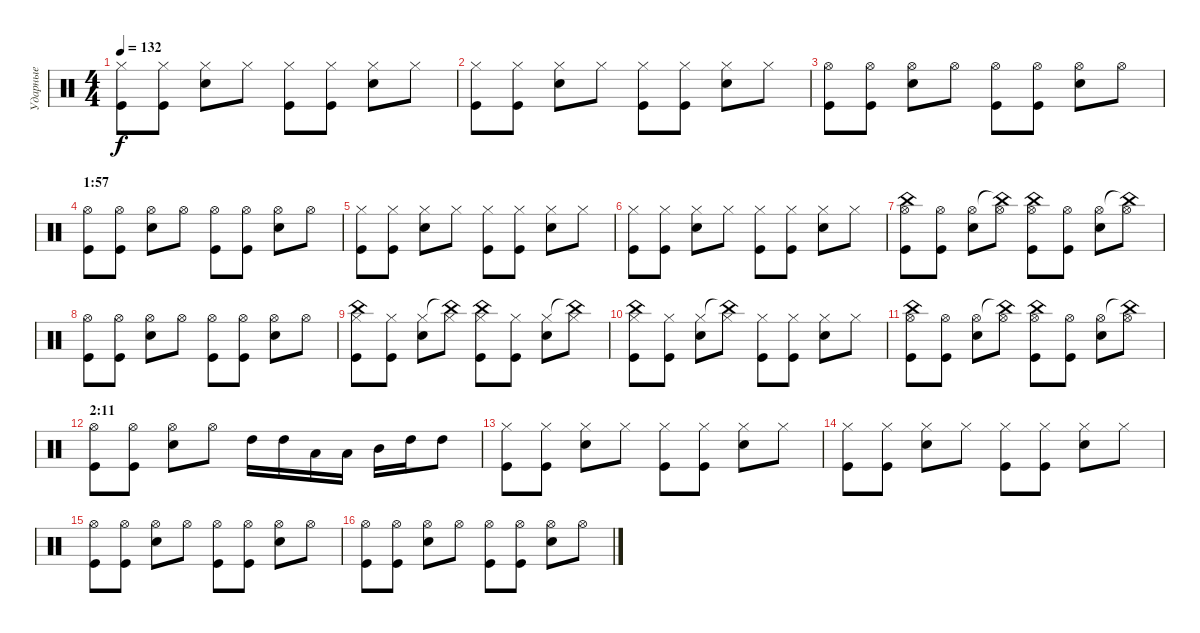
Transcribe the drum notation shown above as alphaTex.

\track ("Ударные" "Ударные") {instrument percussion}
\staff {score}
\articulation defaults
\ts (4 4)
\tempo 132
\clef neutral
\ks c
("Hi-Hat (closed)" "Kick (hit)").8{dy f} ("Hi-Hat (closed)" "Kick (hit)").8 ("Hi-Hat (closed)" "Snare (hit) 2").8 "Hi-Hat (closed)".8 ("Hi-Hat (closed)" "Kick (hit)").8 ("Hi-Hat (closed)" "Kick (hit)").8 ("Hi-Hat (closed)" "Snare (hit) 2").8 "Hi-Hat (closed)".8 |
("Hi-Hat (closed)" "Kick (hit)").8 ("Hi-Hat (closed)" "Kick (hit)").8 ("Hi-Hat (closed)" "Snare (hit) 2").8 "Hi-Hat (closed)".8 ("Hi-Hat (closed)" "Kick (hit)").8 ("Hi-Hat (closed)" "Kick (hit)").8 ("Hi-Hat (closed)" "Snare (hit) 2").8 "Hi-Hat (closed)".8 |
("Hi-Hat (open)" "Kick (hit)").8 ("Hi-Hat (open)" "Kick (hit)").8 ("Hi-Hat (open)" "Snare (hit) 2").8 "Hi-Hat (open)".8 ("Hi-Hat (open)" "Kick (hit)").8 ("Hi-Hat (open)" "Kick (hit)").8 ("Hi-Hat (open)" "Snare (hit) 2").8 "Hi-Hat (open)".8 |
\section ("" "1:57")
("Hi-Hat (open)" "Kick (hit)").8 ("Hi-Hat (open)" "Kick (hit)").8 ("Hi-Hat (open)" "Snare (hit) 2").8 "Hi-Hat (open)".8 ("Hi-Hat (open)" "Kick (hit)").8 ("Hi-Hat (open)" "Kick (hit)").8 ("Hi-Hat (open)" "Snare (hit) 2").8 "Hi-Hat (open)".8 |
("Hi-Hat (closed)" "Kick (hit)").8 ("Hi-Hat (closed)" "Kick (hit)").8 ("Hi-Hat (closed)" "Snare (hit) 2").8 "Hi-Hat (closed)".8 ("Hi-Hat (closed)" "Kick (hit)").8 ("Hi-Hat (closed)" "Kick (hit)").8 ("Hi-Hat (closed)" "Snare (hit) 2").8 "Hi-Hat (closed)".8 |
("Hi-Hat (closed)" "Kick (hit)").8 ("Hi-Hat (closed)" "Kick (hit)").8 ("Hi-Hat (closed)" "Snare (hit) 2").8 "Hi-Hat (closed)".8 ("Hi-Hat (closed)" "Kick (hit)").8 ("Hi-Hat (closed)" "Kick (hit)").8 ("Hi-Hat (closed)" "Snare (hit) 2").8 "Hi-Hat (closed)".8 |
("China (hit)" "Hi-Hat (open)" "Kick (hit)").8 ("Hi-Hat (open)" "Kick (hit)").8 ("Hi-Hat (open)" "Snare (hit) 2").8 ("China (hit)"{t} "Hi-Hat (open)").8 ("China (hit)" "Hi-Hat (open)" "Kick (hit)").8 ("Hi-Hat (open)" "Kick (hit)").8 ("Hi-Hat (open)" "Snare (hit) 2").8 ("China (hit)"{t} "Hi-Hat (open)").8 |
("Hi-Hat (open)" "Kick (hit)").8 ("Hi-Hat (open)" "Kick (hit)").8 ("Hi-Hat (open)" "Snare (hit) 2").8 "Hi-Hat (open)".8 ("Hi-Hat (open)" "Kick (hit)").8 ("Hi-Hat (open)" "Kick (hit)").8 ("Hi-Hat (open)" "Snare (hit) 2").8 "Hi-Hat (open)".8 |
("China (hit)" "Hi-Hat (closed)" "Kick (hit)").8 ("Hi-Hat (closed)" "Kick (hit)").8 ("Hi-Hat (closed)" "Snare (hit) 2").8 ("China (hit)"{t} "Hi-Hat (closed)").8 ("China (hit)" "Hi-Hat (closed)" "Kick (hit)").8 ("Hi-Hat (closed)" "Kick (hit)").8 ("Hi-Hat (closed)" "Snare (hit) 2").8 ("China (hit)"{t} "Hi-Hat (closed)").8 |
("China (hit)" "Hi-Hat (closed)" "Kick (hit)").8 ("Hi-Hat (closed)" "Kick (hit)").8 ("Hi-Hat (closed)" "Snare (hit) 2").8 ("China (hit)"{t} "Hi-Hat (closed)").8 ("Hi-Hat (closed)" "Kick (hit)").8 ("Hi-Hat (closed)" "Kick (hit)").8 ("Hi-Hat (closed)" "Snare (hit) 2").8 "Hi-Hat (closed)".8 |
("China (hit)" "Hi-Hat (open)" "Kick (hit)").8 ("Hi-Hat (open)" "Kick (hit)").8 ("Hi-Hat (open)" "Snare (hit) 2").8 ("China (hit)"{t} "Hi-Hat (open)").8 ("China (hit)" "Hi-Hat (open)" "Kick (hit)").8 ("Hi-Hat (open)" "Kick (hit)").8 ("Hi-Hat (open)" "Snare (hit) 2").8 ("China (hit)"{t} "Hi-Hat (open)").8 |
\section ("" "2:11")
("Hi-Hat (open)" "Kick (hit)").8 ("Hi-Hat (open)" "Kick (hit)").8 ("Hi-Hat (open)" "Snare (hit) 2").8 "Hi-Hat (open)".8 "High Tom (hit)".16 "High Tom (hit)".16 "Low Tom (hit)".16 "Low Tom (hit)".16 "Mid Tom (hit)".16 "High Tom (hit)".16 "High Tom (hit)".8 |
("Hi-Hat (closed)" "Kick (hit)").8 ("Hi-Hat (closed)" "Kick (hit)").8 ("Hi-Hat (closed)" "Snare (hit) 2").8 "Hi-Hat (closed)".8 ("Hi-Hat (closed)" "Kick (hit)").8 ("Hi-Hat (closed)" "Kick (hit)").8 ("Hi-Hat (closed)" "Snare (hit) 2").8 "Hi-Hat (closed)".8 |
("Hi-Hat (closed)" "Kick (hit)").8 ("Hi-Hat (closed)" "Kick (hit)").8 ("Hi-Hat (closed)" "Snare (hit) 2").8 "Hi-Hat (closed)".8 ("Hi-Hat (closed)" "Kick (hit)").8 ("Hi-Hat (closed)" "Kick (hit)").8 ("Hi-Hat (closed)" "Snare (hit) 2").8 "Hi-Hat (closed)".8 |
("Hi-Hat (open)" "Kick (hit)").8 ("Hi-Hat (open)" "Kick (hit)").8 ("Hi-Hat (open)" "Snare (hit) 2").8 "Hi-Hat (open)".8 ("Hi-Hat (open)" "Kick (hit)").8 ("Hi-Hat (open)" "Kick (hit)").8 ("Hi-Hat (open)" "Snare (hit) 2").8 "Hi-Hat (open)".8 |
("Hi-Hat (open)" "Kick (hit)").8 ("Hi-Hat (open)" "Kick (hit)").8 ("Hi-Hat (open)" "Snare (hit) 2").8 "Hi-Hat (open)".8 ("Hi-Hat (open)" "Kick (hit)").8 ("Hi-Hat (open)" "Kick (hit)").8 ("Hi-Hat (open)" "Snare (hit) 2").8 "Hi-Hat (open)".8
